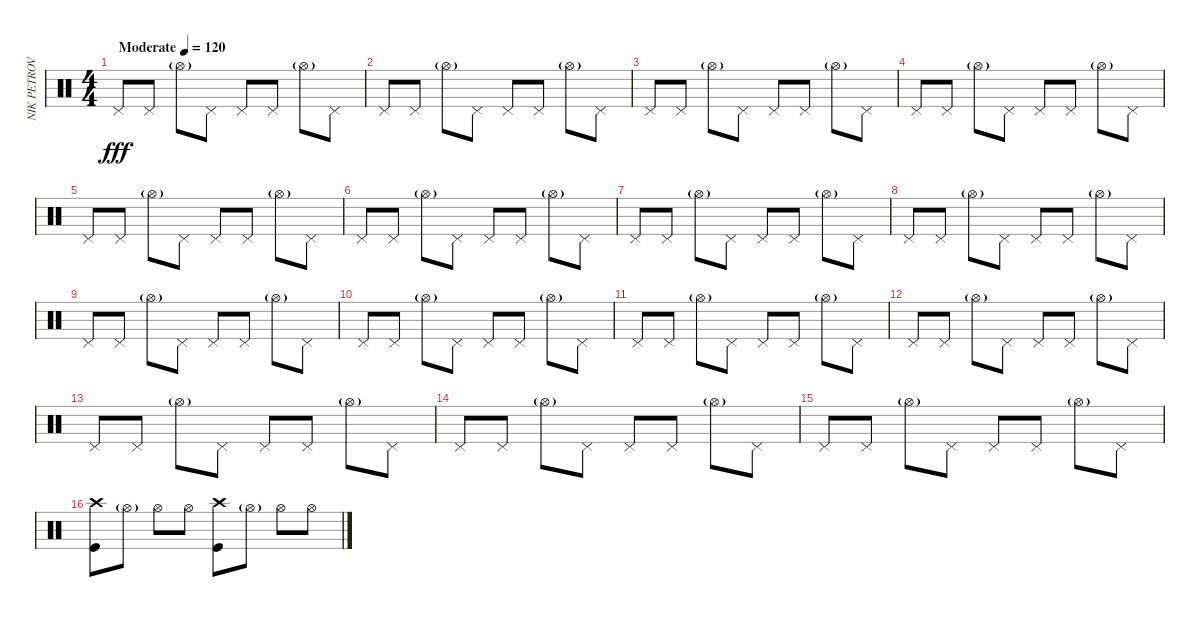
\track ("NIK PETROV" "NIK PETROV") {instrument percussion}
\staff {score}
\articulation defaults
\ts (4 4)
\tempo (120 "Moderate")
\tempo 100
\tempo (120 "Moderate")
\clef neutral
\ks c "Pedal Hi-Hat (hit)".8{dy fff} "Pedal Hi-Hat (hit)".8 "Hi-Hat (open)"{g}.8 "Pedal Hi-Hat (hit)".8 "Pedal Hi-Hat (hit)".8 "Pedal Hi-Hat (hit)".8 "Hi-Hat (open)"{g}.8 "Pedal Hi-Hat (hit)".8
|
"Pedal Hi-Hat (hit)".8 "Pedal Hi-Hat (hit)".8 "Hi-Hat (open)"{g}.8 "Pedal Hi-Hat (hit)".8 "Pedal Hi-Hat (hit)".8 "Pedal Hi-Hat (hit)".8 "Hi-Hat (open)"{g}.8 "Pedal Hi-Hat (hit)".8 |
"Pedal Hi-Hat (hit)".8 "Pedal Hi-Hat (hit)".8 "Hi-Hat (open)"{g}.8 "Pedal Hi-Hat (hit)".8 "Pedal Hi-Hat (hit)".8 "Pedal Hi-Hat (hit)".8 "Hi-Hat (open)"{g}.8 "Pedal Hi-Hat (hit)".8 |
"Pedal Hi-Hat (hit)".8 "Pedal Hi-Hat (hit)".8 "Hi-Hat (open)"{g}.8 "Pedal Hi-Hat (hit)".8 "Pedal Hi-Hat (hit)".8 "Pedal Hi-Hat (hit)".8 "Hi-Hat (open)"{g}.8 "Pedal Hi-Hat (hit)".8 |
"Pedal Hi-Hat (hit)".8 "Pedal Hi-Hat (hit)".8 "Hi-Hat (open)"{g}.8 "Pedal Hi-Hat (hit)".8 "Pedal Hi-Hat (hit)".8 "Pedal Hi-Hat (hit)".8 "Hi-Hat (open)"{g}.8 "Pedal Hi-Hat (hit)".8 |
"Pedal Hi-Hat (hit)".8 "Pedal Hi-Hat (hit)".8 "Hi-Hat (open)"{g}.8 "Pedal Hi-Hat (hit)".8 "Pedal Hi-Hat (hit)".8 "Pedal Hi-Hat (hit)".8 "Hi-Hat (open)"{g}.8 "Pedal Hi-Hat (hit)".8 |
"Pedal Hi-Hat (hit)".8 "Pedal Hi-Hat (hit)".8 "Hi-Hat (open)"{g}.8 "Pedal Hi-Hat (hit)".8 "Pedal Hi-Hat (hit)".8 "Pedal Hi-Hat (hit)".8 "Hi-Hat (open)"{g}.8 "Pedal Hi-Hat (hit)".8 |
"Pedal Hi-Hat (hit)".8 "Pedal Hi-Hat (hit)".8 "Hi-Hat (open)"{g}.8 "Pedal Hi-Hat (hit)".8 "Pedal Hi-Hat (hit)".8 "Pedal Hi-Hat (hit)".8 "Hi-Hat (open)"{g}.8 "Pedal Hi-Hat (hit)".8 |
"Pedal Hi-Hat (hit)".8 "Pedal Hi-Hat (hit)".8 "Hi-Hat (open)"{g}.8 "Pedal Hi-Hat (hit)".8 "Pedal Hi-Hat (hit)".8 "Pedal Hi-Hat (hit)".8 "Hi-Hat (open)"{g}.8 "Pedal Hi-Hat (hit)".8 |
"Pedal Hi-Hat (hit)".8 "Pedal Hi-Hat (hit)".8 "Hi-Hat (open)"{g}.8 "Pedal Hi-Hat (hit)".8 "Pedal Hi-Hat (hit)".8 "Pedal Hi-Hat (hit)".8 "Hi-Hat (open)"{g}.8 "Pedal Hi-Hat (hit)".8 |
"Pedal Hi-Hat (hit)".8 "Pedal Hi-Hat (hit)".8 "Hi-Hat (open)"{g}.8 "Pedal Hi-Hat (hit)".8 "Pedal Hi-Hat (hit)".8 "Pedal Hi-Hat (hit)".8 "Hi-Hat (open)"{g}.8 "Pedal Hi-Hat (hit)".8 |
"Pedal Hi-Hat (hit)".8 "Pedal Hi-Hat (hit)".8 "Hi-Hat (open)"{g}.8 "Pedal Hi-Hat (hit)".8 "Pedal Hi-Hat (hit)".8 "Pedal Hi-Hat (hit)".8 "Hi-Hat (open)"{g}.8 "Pedal Hi-Hat (hit)".8 |
"Pedal Hi-Hat (hit)".8 "Pedal Hi-Hat (hit)".8 "Hi-Hat (open)"{g}.8 "Pedal Hi-Hat (hit)".8 "Pedal Hi-Hat (hit)".8 "Pedal Hi-Hat (hit)".8 "Hi-Hat (open)"{g}.8 "Pedal Hi-Hat (hit)".8 |
"Pedal Hi-Hat (hit)".8 "Pedal Hi-Hat (hit)".8 "Hi-Hat (open)"{g}.8 "Pedal Hi-Hat (hit)".8 "Pedal Hi-Hat (hit)".8 "Pedal Hi-Hat (hit)".8 "Hi-Hat (open)"{g}.8 "Pedal Hi-Hat (hit)".8 |
"Pedal Hi-Hat (hit)".8 "Pedal Hi-Hat (hit)".8 "Hi-Hat (open)"{g}.8 "Pedal Hi-Hat (hit)".8 "Pedal Hi-Hat (hit)".8 "Pedal Hi-Hat (hit)".8 "Hi-Hat (open)"{g}.8 "Pedal Hi-Hat (hit)".8 |
("Crash high (hit)" "Kick (hit)").8 "Hi-Hat (open)"{g}.8 "Hi-Hat (open)".8 "Hi-Hat (open)".8 ("Crash high (hit)" "Kick (hit)").8 "Hi-Hat (open)"{g}.8 "Hi-Hat (open)".8 "Hi-Hat (open)".8
